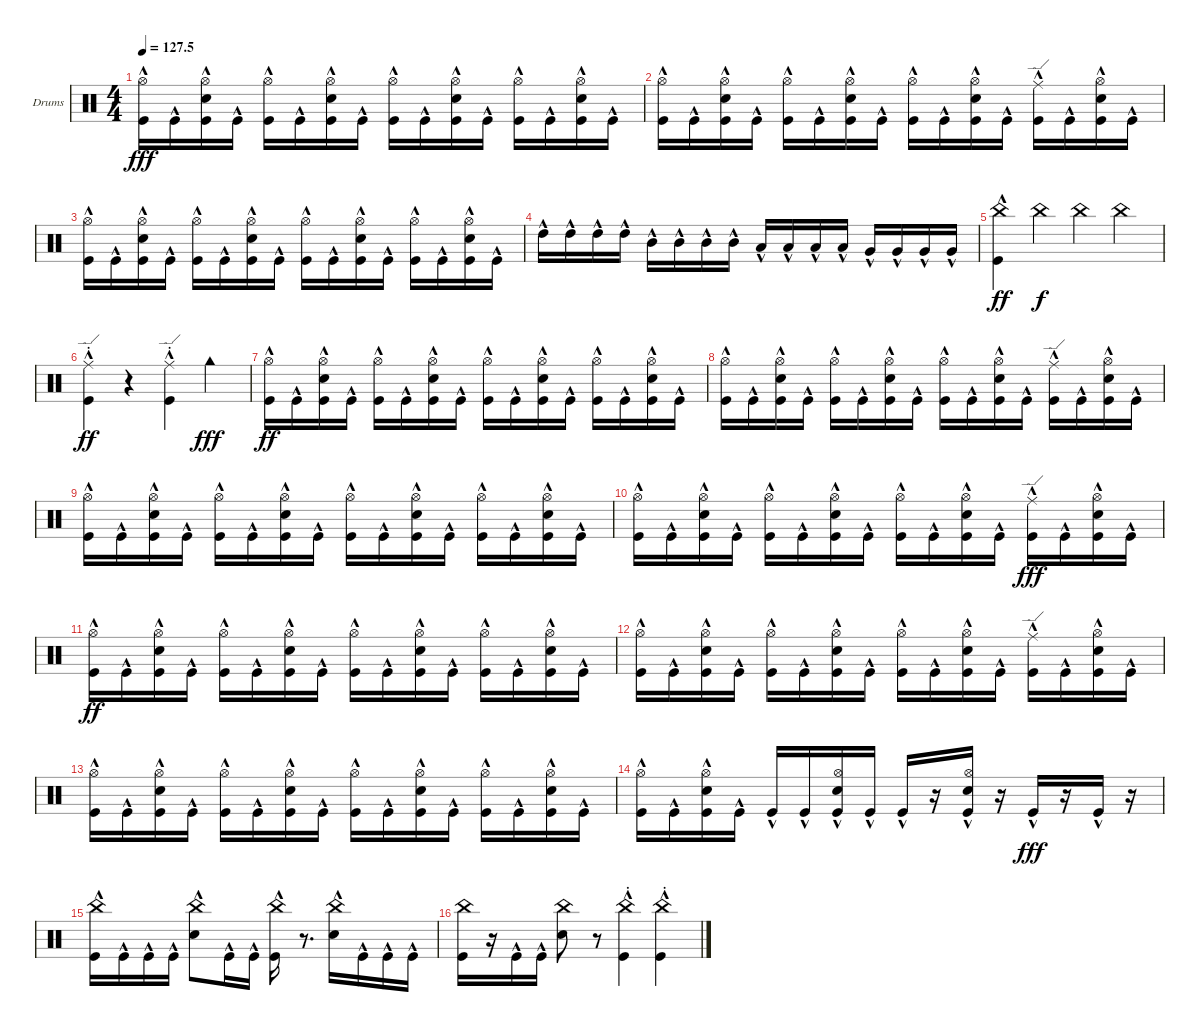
\defaultSystemsLayout 4
\bracketExtendMode groupsimilarinstruments
\firstSystemTrackNameOrientation horizontal
\otherSystemsTrackNameOrientation horizontal
\track ("Drumkit" "Drums") {instrument percussion}
\staff {score}
\articulation defaults
\ts (4 4)
\tempo
127.5
\accidentals auto
\clef neutral
\ottava regular
\simile none
\ks c
("Kick (hit)"{hac} "Hi-Hat (open)"{hac}).16{dy fff} "Kick (hit)"{hac}.16 ("Snare (hit) 2"{hac} "Kick (hit)"{hac} "Hi-Hat (open)"{hac}).16 "Kick (hit)"{hac}.16 ("Kick (hit)"{hac} "Hi-Hat (open)"{hac}).16 "Kick (hit)"{hac}.16 ("Snare (hit) 2"{hac} "Kick (hit)"{hac} "Hi-Hat (open)"{hac}).16 "Kick (hit)"{hac}.16 ("Kick (hit)"{hac} "Hi-Hat (open)"{hac}).16 "Kick (hit)"{hac}.16 ("Kick (hit)"{hac} "Snare (hit) 2"{hac} "Hi-Hat (open)"{hac}).16 "Kick (hit)"{hac}.16 ("Kick (hit)"{hac} "Hi-Hat (open)"{hac}).16 "Kick (hit)"{hac}.16 ("Kick (hit)"{hac} "Snare (hit) 2"{hac} "Hi-Hat (open)"{hac}).16 "Kick (hit)"{hac}.16 |
("Kick (hit)"{hac} "Hi-Hat (open)"{hac}).16 "Kick (hit)"{hac}.16 ("Snare (hit) 2"{hac} "Kick (hit)"{hac} "Hi-Hat (open)"{hac}).16 "Kick (hit)"{hac}.16 ("Kick (hit)"{hac} "Hi-Hat (open)"{hac}).16 "Kick (hit)"{hac}.16 ("Snare (hit) 2"{hac} "Kick (hit)"{hac} "Hi-Hat (open)"{hac}).16 "Kick (hit)"{hac}.16 ("Kick (hit)"{hac} "Hi-Hat (open)"{hac}).16 "Kick (hit)"{hac}.16 ("Kick (hit)"{hac} "Snare (hit) 2"{hac} "Hi-Hat (open)"{hac}).16 "Kick (hit)"{hac}.16 ("Kick (hit)"{hac} "Ride (edge)"{hac}).16 "Kick (hit)"{hac}.16 ("Kick (hit)"{hac} "Snare (hit) 2"{hac} "Hi-Hat (open)"{hac}).16 "Kick (hit)"{hac}.16 |
("Kick (hit)"{hac} "Hi-Hat (open)"{hac}).16 "Kick (hit)"{hac}.16 ("Snare (hit) 2"{hac} "Kick (hit)"{hac} "Hi-Hat (open)"{hac}).16 "Kick (hit)"{hac}.16 ("Kick (hit)"{hac} "Hi-Hat (open)"{hac}).16 "Kick (hit)"{hac}.16 ("Snare (hit) 2"{hac} "Kick (hit)"{hac} "Hi-Hat (open)"{hac}).16 "Kick (hit)"{hac}.16 ("Kick (hit)"{hac} "Hi-Hat (open)"{hac}).16 "Kick (hit)"{hac}.16 ("Kick (hit)"{hac} "Snare (hit) 2"{hac} "Hi-Hat (open)"{hac}).16 "Kick (hit)"{hac}.16 ("Kick (hit)"{hac} "Hi-Hat (open)"{hac}).16 "Kick (hit)"{hac}.16 ("Kick (hit)"{hac} "Snare (hit) 2"{hac} "Hi-Hat (open)"{hac}).16 "Kick (hit)"{hac}.16 |
"High Tom (hit)"{hac}.16 "High Tom (hit)"{hac}.16 "High Tom (hit)"{hac}.16 "High Tom (hit)"{hac}.16 "Mid Tom (hit)"{hac}.16 "Mid Tom (hit)"{hac}.16 "Mid Tom (hit)"{hac}.16 "Mid Tom (hit)"{hac}.16 "Low Tom (hit)"{hac}.16 "Low Tom (hit)"{hac}.16 "Low Tom (hit)"{hac}.16 "Low Tom (hit)"{hac}.16 "Very Low Tom (hit)"{hac}.16 "Very Low Tom (hit)"{hac}.16 "Very Low Tom (hit)"{hac}.16 "Very Low Tom (hit)"{hac}.16 |
("Kick (hit)"{hac} "China (hit)").4{dy ff} "China (hit)".4{dy f} "China (hit)".4 "China (hit)".4 |
("Kick (hit)"{hac} "Ride (edge)"{hac st}).4{dy ff} r.4 ("Kick (hit)"{hac} "Ride (edge)"{hac st}).4 "Cowbell high (hit)".4{dy fff} |
("Kick (hit)"{hac} "Hi-Hat (open)"{hac}).16{dy ff} "Kick (hit)"{hac}.16 ("Snare (hit) 2"{hac} "Kick (hit)"{hac} "Hi-Hat (open)"{hac}).16 "Kick (hit)"{hac}.16 ("Kick (hit)"{hac} "Hi-Hat (open)"{hac}).16 "Kick (hit)"{hac}.16 ("Snare (hit) 2"{hac} "Kick (hit)"{hac} "Hi-Hat (open)"{hac}).16 "Kick (hit)"{hac}.16 ("Kick (hit)"{hac} "Hi-Hat (open)"{hac}).16 "Kick (hit)"{hac}.16 ("Kick (hit)"{hac} "Snare (hit) 2"{hac} "Hi-Hat (open)"{hac}).16 "Kick (hit)"{hac}.16 ("Kick (hit)"{hac} "Hi-Hat (open)"{hac}).16 "Kick (hit)"{hac}.16 ("Kick (hit)"{hac} "Snare (hit) 2"{hac} "Hi-Hat (open)"{hac}).16 "Kick (hit)"{hac}.16 |
("Kick (hit)"{hac} "Hi-Hat (open)"{hac}).16 "Kick (hit)"{hac}.16 ("Snare (hit) 2"{hac} "Kick (hit)"{hac} "Hi-Hat (open)"{hac}).16 "Kick (hit)"{hac}.16 ("Kick (hit)"{hac} "Hi-Hat (open)"{hac}).16 "Kick (hit)"{hac}.16 ("Snare (hit) 2"{hac} "Kick (hit)"{hac} "Hi-Hat (open)"{hac}).16 "Kick (hit)"{hac}.16 ("Kick (hit)"{hac} "Hi-Hat (open)"{hac}).16 "Kick (hit)"{hac}.16 ("Kick (hit)"{hac} "Snare (hit) 2"{hac} "Hi-Hat (open)"{hac}).16 "Kick (hit)"{hac}.16 ("Kick (hit)"{hac} "Ride (edge)"{hac}).16 "Kick (hit)"{hac}.16 ("Kick (hit)"{hac} "Snare (hit) 2"{hac} "Hi-Hat (open)"{hac}).16 "Kick (hit)"{hac}.16 |
("Kick (hit)"{hac} "Hi-Hat (open)"{hac}).16 "Kick (hit)"{hac}.16 ("Snare (hit) 2"{hac} "Kick (hit)"{hac} "Hi-Hat (open)"{hac}).16 "Kick (hit)"{hac}.16 ("Kick (hit)"{hac} "Hi-Hat (open)"{hac}).16 "Kick (hit)"{hac}.16 ("Snare (hit) 2"{hac} "Kick (hit)"{hac} "Hi-Hat (open)"{hac}).16 "Kick (hit)"{hac}.16 ("Kick (hit)"{hac} "Hi-Hat (open)"{hac}).16 "Kick (hit)"{hac}.16 ("Kick (hit)"{hac} "Snare (hit) 2"{hac} "Hi-Hat (open)"{hac}).16 "Kick (hit)"{hac}.16 ("Kick (hit)"{hac} "Hi-Hat (open)"{hac}).16 "Kick (hit)"{hac}.16 ("Kick (hit)"{hac} "Snare (hit) 2"{hac} "Hi-Hat (open)"{hac}).16 "Kick (hit)"{hac}.16 |
("Kick (hit)"{hac} "Hi-Hat (open)"{hac}).16 "Kick (hit)"{hac}.16 ("Snare (hit) 2"{hac} "Kick (hit)"{hac} "Hi-Hat (open)"{hac}).16 "Kick (hit)"{hac}.16 ("Kick (hit)"{hac} "Hi-Hat (open)"{hac}).16 "Kick (hit)"{hac}.16 ("Snare (hit) 2"{hac} "Kick (hit)"{hac} "Hi-Hat (open)"{hac}).16 "Kick (hit)"{hac}.16 ("Kick (hit)"{hac} "Hi-Hat (open)"{hac}).16 "Kick (hit)"{hac}.16 ("Kick (hit)"{hac} "Snare (hit) 2"{hac} "Hi-Hat (open)"{hac}).16 "Kick (hit)"{hac}.16 ("Kick (hit)"{hac} "Ride (edge)").16{dy fff} "Kick (hit)"{hac}.16 ("Kick (hit)"{hac} "Snare (hit) 2"{hac} "Hi-Hat (open)").16 "Kick (hit)"{hac}.16 |
("Kick (hit)"{hac} "Hi-Hat (open)"{hac}).16{dy ff} "Kick (hit)"{hac}.16 ("Snare (hit) 2"{hac} "Kick (hit)"{hac} "Hi-Hat (open)"{hac}).16 "Kick (hit)"{hac}.16 ("Kick (hit)"{hac} "Hi-Hat (open)"{hac}).16 "Kick (hit)"{hac}.16 ("Snare (hit) 2"{hac} "Kick (hit)"{hac} "Hi-Hat (open)"{hac}).16 "Kick (hit)"{hac}.16 ("Kick (hit)"{hac} "Hi-Hat (open)"{hac}).16 "Kick (hit)"{hac}.16 ("Kick (hit)"{hac} "Snare (hit) 2"{hac} "Hi-Hat (open)"{hac}).16 "Kick (hit)"{hac}.16 ("Kick (hit)"{hac} "Hi-Hat (open)"{hac}).16 "Kick (hit)"{hac}.16 ("Kick (hit)"{hac} "Snare (hit) 2"{hac} "Hi-Hat (open)"{hac}).16 "Kick (hit)"{hac}.16 |
("Kick (hit)"{hac} "Hi-Hat (open)"{hac}).16 "Kick (hit)"{hac}.16 ("Snare (hit) 2"{hac} "Kick (hit)"{hac} "Hi-Hat (open)"{hac}).16 "Kick (hit)"{hac}.16 ("Kick (hit)"{hac} "Hi-Hat (open)"{hac}).16 "Kick (hit)"{hac}.16 ("Snare (hit) 2"{hac} "Kick (hit)"{hac} "Hi-Hat (open)"{hac}).16 "Kick (hit)"{hac}.16 ("Kick (hit)"{hac} "Hi-Hat (open)"{hac}).16 "Kick (hit)"{hac}.16 ("Kick (hit)"{hac} "Snare (hit) 2"{hac} "Hi-Hat (open)"{hac}).16 "Kick (hit)"{hac}.16 ("Kick (hit)"{hac} "Ride (edge)"{hac}).16 "Kick (hit)"{hac}.16 ("Kick (hit)"{hac} "Snare (hit) 2"{hac} "Hi-Hat (open)"{hac}).16 "Kick (hit)"{hac}.16 |
("Kick (hit)"{hac} "Hi-Hat (open)"{hac}).16 "Kick (hit)"{hac}.16 ("Snare (hit) 2"{hac} "Kick (hit)"{hac} "Hi-Hat (open)"{hac}).16 "Kick (hit)"{hac}.16 ("Kick (hit)"{hac} "Hi-Hat (open)"{hac}).16 "Kick (hit)"{hac}.16 ("Snare (hit) 2"{hac} "Kick (hit)"{hac} "Hi-Hat (open)"{hac}).16 "Kick (hit)"{hac}.16 ("Kick (hit)"{hac} "Hi-Hat (open)"{hac}).16 "Kick (hit)"{hac}.16 ("Kick (hit)"{hac} "Snare (hit) 2"{hac} "Hi-Hat (open)"{hac}).16 "Kick (hit)"{hac}.16 ("Kick (hit)"{hac} "Hi-Hat (open)"{hac}).16 "Kick (hit)"{hac}.16 ("Kick (hit)"{hac} "Snare (hit) 2"{hac} "Hi-Hat (open)"{hac}).16 "Kick (hit)"{hac}.16 |
("Kick (hit)"{hac} "Hi-Hat (open)"{hac}).16 "Kick (hit)"{hac}.16 ("Snare (hit) 2"{hac} "Kick (hit)"{hac} "Hi-Hat (open)"{hac}).16 "Kick (hit)"{hac}.16 "Kick (hit)"{hac}.16 "Kick (hit)"{hac}.16 ("Snare (hit) 2"{hac} "Kick (hit)"{hac} "Hi-Hat (open)"{hac}).16 "Kick (hit)"{hac}.16 "Kick (hit)"{hac}.16 r.16 ("Kick (hit)"{hac} "Snare (hit) 2"{hac} "Hi-Hat (open)"{hac}).16 r.16 "Kick (hit)"{hac}.16{dy fff} r.16 "Kick (hit)"{hac}.16 r.16 |
("Kick (hit)"{hac} "China (hit)").16 "Kick (hit)"{hac}.16 "Kick (hit)"{hac}.16 "Kick (hit)"{hac}.16 ("Snare (hit) 2"{hac} "China (hit)").8 "Kick (hit)"{hac}.16 "Kick (hit)"{hac}.16 ("Kick (hit)"{hac} "China (hit)").16 r.8{d} ("Snare (hit) 2"{hac} "China (hit)").16 "Kick (hit)"{hac}.16 "Kick (hit)"{hac}.16 "Kick (hit)"{hac}.16 |
("Kick (hit)" "China (hit)").16 r.16 "Kick (hit)"{hac}.16 "Kick (hit)"{hac}.16 ("Snare (hit) 2" "China (hit)").8 r.8 ("Kick (hit)"{hac} "China (hit)"{st}).4 ("Kick (hit)"{hac} "China (hit)"{st}).4
